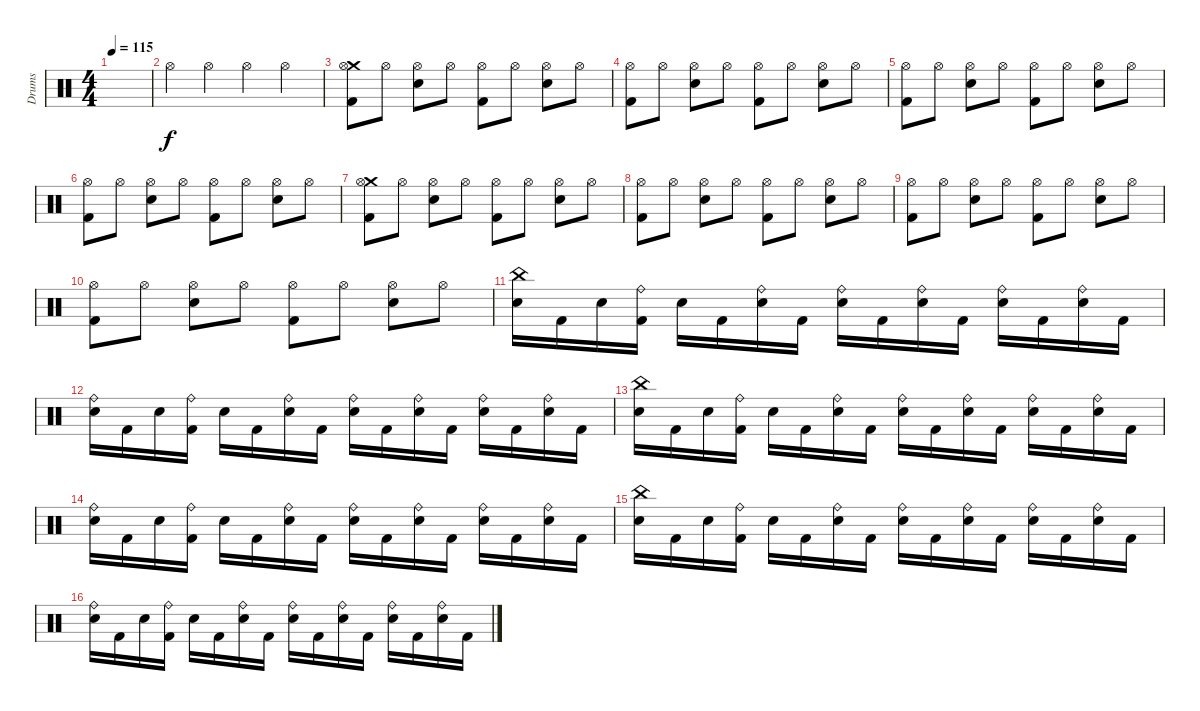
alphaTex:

\track ("Drums" "Drums") {instrument percussion}
\staff {score}
\articulation defaults
\ts (4 4)
\tempo 115
\clef neutral
\ks c
|
"Hi-Hat (open)".4 "Hi-Hat (open)".4 "Hi-Hat (open)".4 "Hi-Hat (open)".4 |
("Crash medium (hit)" "Hi-Hat (open)" "Kick (hit) 2").8 "Hi-Hat (open)".8 ("Hi-Hat (open)" "Snare (hit) 2").8 "Hi-Hat (open)".8 ("Hi-Hat (open)" "Kick (hit) 2").8 "Hi-Hat (open)".8 ("Hi-Hat (open)" "Snare (hit) 2").8 "Hi-Hat (open)".8 |
("Hi-Hat (open)" "Kick (hit) 2").8 "Hi-Hat (open)".8 ("Hi-Hat (open)" "Snare (hit) 2").8 "Hi-Hat (open)".8 ("Hi-Hat (open)" "Kick (hit) 2").8 "Hi-Hat (open)".8 ("Hi-Hat (open)" "Snare (hit) 2").8 "Hi-Hat (open)".8 |
("Hi-Hat (open)" "Kick (hit) 2").8 "Hi-Hat (open)".8 ("Hi-Hat (open)" "Snare (hit) 2").8 "Hi-Hat (open)".8 ("Hi-Hat (open)" "Kick (hit) 2").8 "Hi-Hat (open)".8 ("Hi-Hat (open)" "Snare (hit) 2").8 "Hi-Hat (open)".8 |
("Hi-Hat (open)" "Kick (hit) 2").8 "Hi-Hat (open)".8 ("Hi-Hat (open)" "Snare (hit) 2").8 "Hi-Hat (open)".8 ("Hi-Hat (open)" "Kick (hit) 2").8 "Hi-Hat (open)".8 ("Hi-Hat (open)" "Snare (hit) 2").8 "Hi-Hat (open)".8 |
("Crash medium (hit)" "Hi-Hat (open)" "Kick (hit) 2").8 "Hi-Hat (open)".8 ("Hi-Hat (open)" "Snare (hit) 2").8 "Hi-Hat (open)".8 ("Hi-Hat (open)" "Kick (hit) 2").8 "Hi-Hat (open)".8 ("Hi-Hat (open)" "Snare (hit) 2").8 "Hi-Hat (open)".8 |
("Hi-Hat (open)" "Kick (hit) 2").8 "Hi-Hat (open)".8 ("Hi-Hat (open)" "Snare (hit) 2").8 "Hi-Hat (open)".8 ("Hi-Hat (open)" "Kick (hit) 2").8 "Hi-Hat (open)".8 ("Hi-Hat (open)" "Snare (hit) 2").8 "Hi-Hat (open)".8 |
("Hi-Hat (open)" "Kick (hit) 2").8 "Hi-Hat (open)".8 ("Hi-Hat (open)" "Snare (hit) 2").8 "Hi-Hat (open)".8 ("Hi-Hat (open)" "Kick (hit) 2").8 "Hi-Hat (open)".8 ("Hi-Hat (open)" "Snare (hit) 2").8 "Hi-Hat (open)".8 |
("Hi-Hat (open)" "Kick (hit) 2").8 "Hi-Hat (open)".8 ("Hi-Hat (open)" "Snare (hit) 2").8 "Hi-Hat (open)".8 ("Hi-Hat (open)" "Kick (hit) 2").8 "Hi-Hat (open)".8 ("Hi-Hat (open)" "Snare (hit) 2").8 "Hi-Hat (open)".8 |
("China (hit)" "Snare (hit) 2").16 "Kick (hit) 2".16 "Snare (hit) 2".16 ("Ride (bell)" "Kick (hit) 2").16 "Snare (hit) 2".16 "Kick (hit) 2".16 ("Ride (bell)" "Snare (hit) 2").16 "Kick (hit) 2".16 ("Ride (bell)" "Snare (hit) 2").16 "Kick (hit) 2".16 ("Ride (bell)" "Snare (hit) 2").16 "Kick (hit) 2".16 ("Ride (bell)" "Snare (hit) 2").16 "Kick (hit) 2".16 ("Ride (bell)" "Snare (hit) 2").16 "Kick (hit) 2".16 |
("Ride (bell)" "Snare (hit) 2").16 "Kick (hit) 2".16 "Snare (hit) 2".16 ("Ride (bell)" "Kick (hit) 2").16 "Snare (hit) 2".16 "Kick (hit) 2".16 ("Ride (bell)" "Snare (hit) 2").16 "Kick (hit) 2".16 ("Ride (bell)" "Snare (hit) 2").16 "Kick (hit) 2".16 ("Ride (bell)" "Snare (hit) 2").16 "Kick (hit) 2".16 ("Ride (bell)" "Snare (hit) 2").16 "Kick (hit) 2".16 ("Ride (bell)" "Snare (hit) 2").16 "Kick (hit) 2".16 |
("China (hit)" "Snare (hit) 2").16 "Kick (hit) 2".16 "Snare (hit) 2".16 ("Ride (bell)" "Kick (hit) 2").16 "Snare (hit) 2".16 "Kick (hit) 2".16 ("Ride (bell)" "Snare (hit) 2").16 "Kick (hit) 2".16 ("Ride (bell)" "Snare (hit) 2").16 "Kick (hit) 2".16 ("Ride (bell)" "Snare (hit) 2").16 "Kick (hit) 2".16 ("Ride (bell)" "Snare (hit) 2").16 "Kick (hit) 2".16 ("Ride (bell)" "Snare (hit) 2").16 "Kick (hit) 2".16 |
("Ride (bell)" "Snare (hit) 2").16 "Kick (hit) 2".16 "Snare (hit) 2".16 ("Ride (bell)" "Kick (hit) 2").16 "Snare (hit) 2".16 "Kick (hit) 2".16 ("Ride (bell)" "Snare (hit) 2").16 "Kick (hit) 2".16 ("Ride (bell)" "Snare (hit) 2").16 "Kick (hit) 2".16 ("Ride (bell)" "Snare (hit) 2").16 "Kick (hit) 2".16 ("Ride (bell)" "Snare (hit) 2").16 "Kick (hit) 2".16 ("Ride (bell)" "Snare (hit) 2").16 "Kick (hit) 2".16 |
("China (hit)" "Snare (hit) 2").16 "Kick (hit) 2".16 "Snare (hit) 2".16 ("Ride (bell)" "Kick (hit) 2").16 "Snare (hit) 2".16 "Kick (hit) 2".16 ("Ride (bell)" "Snare (hit) 2").16 "Kick (hit) 2".16 ("Ride (bell)" "Snare (hit) 2").16 "Kick (hit) 2".16 ("Ride (bell)" "Snare (hit) 2").16 "Kick (hit) 2".16 ("Ride (bell)" "Snare (hit) 2").16 "Kick (hit) 2".16 ("Ride (bell)" "Snare (hit) 2").16 "Kick (hit) 2".16 |
("Ride (bell)" "Snare (hit) 2").16 "Kick (hit) 2".16 "Snare (hit) 2".16 ("Ride (bell)" "Kick (hit) 2").16 "Snare (hit) 2".16 "Kick (hit) 2".16 ("Ride (bell)" "Snare (hit) 2").16 "Kick (hit) 2".16 ("Ride (bell)" "Snare (hit) 2").16 "Kick (hit) 2".16 ("Ride (bell)" "Snare (hit) 2").16 "Kick (hit) 2".16 ("Ride (bell)" "Snare (hit) 2").16 "Kick (hit) 2".16 ("Ride (bell)" "Snare (hit) 2").16 "Kick (hit) 2".16
